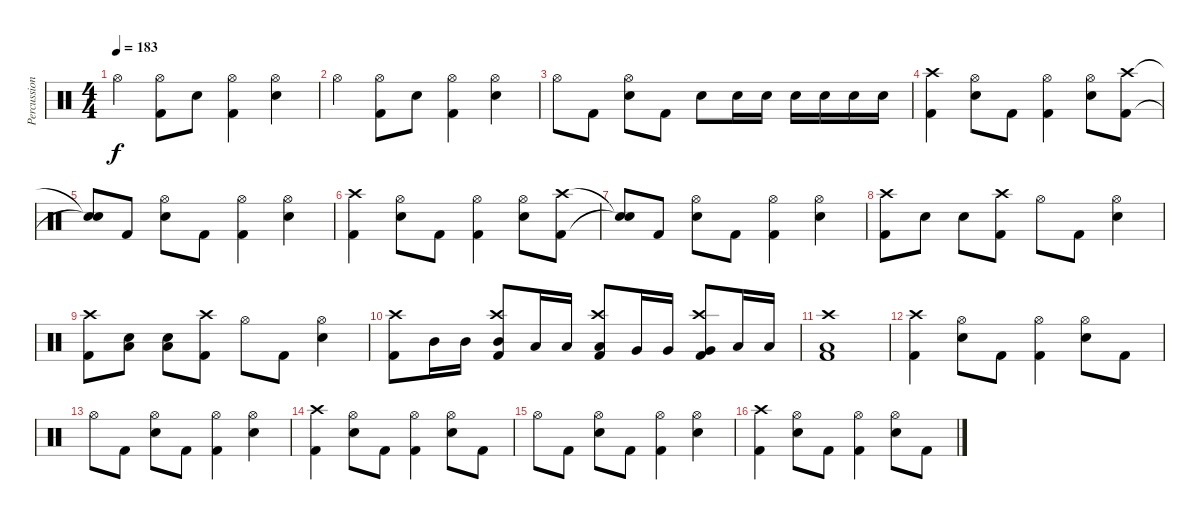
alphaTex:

\track ("Percussion" "Percussion") {instrument percussion}
\staff {score}
\articulation defaults
\ts (4 4)
\tempo 183
\clef neutral
\ks c "Hi-Hat (open)".4{dy f}
("Hi-Hat (open)" "Kick (hit) 2").8 "Electric Snare (hit)".8 ("Hi-Hat (open)" "Kick (hit) 2").4 ("Hi-Hat (open)" "Electric Snare (hit)").4 |
"Hi-Hat (open)".4 ("Hi-Hat (open)" "Kick (hit) 2").8 "Electric Snare (hit)".8 ("Hi-Hat (open)" "Kick (hit) 2").4 ("Hi-Hat (open)" "Electric Snare (hit)").4 |
"Hi-Hat (open)".8 "Kick (hit) 2".8 ("Hi-Hat (open)" "Electric Snare (hit)").8 "Kick (hit) 2".8 "Electric Snare (hit)".8 "Electric Snare (hit)".16 "Electric Snare (hit)".16 "Electric Snare (hit)".16 "Electric Snare (hit)".16 "Electric Snare (hit)".16 "Electric Snare (hit)".16 |
("Crash high (hit)" "Kick (hit) 2").4 ("Hi-Hat (open)" "Electric Snare (hit)").8 "Kick (hit) 2".8 ("Hi-Hat (open)" "Kick (hit) 2").4 ("Hi-Hat (open)" "Electric Snare (hit)").8 ("Crash high (hit)" "Kick (hit) 2").8 |
("Snare (hit)"{t} "Snare (hit)"{t}).8 "Kick (hit) 2".8 ("Hi-Hat (open)" "Electric Snare (hit)").8 "Kick (hit) 2".8 ("Hi-Hat (open)" "Kick (hit) 2").4 ("Hi-Hat (open)" "Electric Snare (hit)").4 |
("Crash high (hit)" "Kick (hit) 2").4 ("Hi-Hat (open)" "Electric Snare (hit)").8 "Kick (hit) 2".8 ("Hi-Hat (open)" "Kick (hit) 2").4 ("Hi-Hat (open)" "Electric Snare (hit)").8 ("Crash high (hit)" "Kick (hit) 2").8 |
("Snare (hit)"{t} "Snare (hit)"{t}).8 "Kick (hit) 2".8 ("Hi-Hat (open)" "Electric Snare (hit)").8 "Kick (hit) 2".8 ("Hi-Hat (open)" "Kick (hit) 2").4 ("Hi-Hat (open)" "Electric Snare (hit)").4 |
("Crash high (hit)" "Kick (hit) 2").8 "Electric Snare (hit)".8 "Electric Snare (hit)".8 ("Crash high (hit)" "Kick (hit) 2").8 "Hi-Hat (open)".8 "Kick (hit) 2".8 ("Hi-Hat (open)" "Electric Snare (hit)").4 |
("Crash high (hit)" "Kick (hit) 2").8 ("Electric Snare (hit)" "Low Floor Tom (hit)").8 ("Electric Snare (hit)" "Low Floor Tom (hit)").8 ("Crash high (hit)" "Kick (hit) 2").8 "Hi-Hat (open)".8 "Kick (hit) 2".8 ("Hi-Hat (open)" "Electric Snare (hit)").4 |
("Crash high (hit)" "Kick (hit) 2").8 "Mid Tom (hit)".16 "Mid Tom (hit)".16 ("Crash high (hit)" "Mid Tom (hit)" "Kick (hit) 2").8 "Low Tom (hit)".16 "Low Tom (hit)".16 ("Crash high (hit)" "Low Tom (hit)" "Kick (hit) 2").8 "Very Low Tom (hit)".16 "Very Low Tom (hit)".16 ("Crash high (hit)" "Very Low Tom (hit)" "Kick (hit) 2").8 "Low Floor Tom (hit)".16 "Low Floor Tom (hit)".16 |
("Crash high (hit)" "Low Floor Tom (hit)" "Kick (hit) 2").1 |
("Crash high (hit)" "Kick (hit) 2").4 ("Hi-Hat (open)" "Electric Snare (hit)").8 "Kick (hit) 2".8 ("Hi-Hat (open)" "Kick (hit) 2").4 ("Hi-Hat (open)" "Electric Snare (hit)").8 "Kick (hit) 2".8 |
"Hi-Hat (open)".8 "Kick (hit) 2".8 ("Hi-Hat (open)" "Electric Snare (hit)").8 "Kick (hit) 2".8 ("Hi-Hat (open)" "Kick (hit) 2").4 ("Hi-Hat (open)" "Electric Snare (hit)").4 |
("Crash high (hit)" "Kick (hit) 2").4 ("Hi-Hat (open)" "Electric Snare (hit)").8 "Kick (hit) 2".8 ("Hi-Hat (open)" "Kick (hit) 2").4 ("Hi-Hat (open)" "Electric Snare (hit)").8 "Kick (hit) 2".8 |
"Hi-Hat (open)".8 "Kick (hit) 2".8 ("Hi-Hat (open)" "Electric Snare (hit)").8 "Kick (hit) 2".8 ("Hi-Hat (open)" "Kick (hit) 2").4 ("Hi-Hat (open)" "Electric Snare (hit)").4 |
("Crash high (hit)" "Kick (hit) 2").4 ("Hi-Hat (open)" "Electric Snare (hit)").8 "Kick (hit) 2".8 ("Hi-Hat (open)" "Kick (hit) 2").4 ("Hi-Hat (open)" "Electric Snare (hit)").8 "Kick (hit) 2".8
